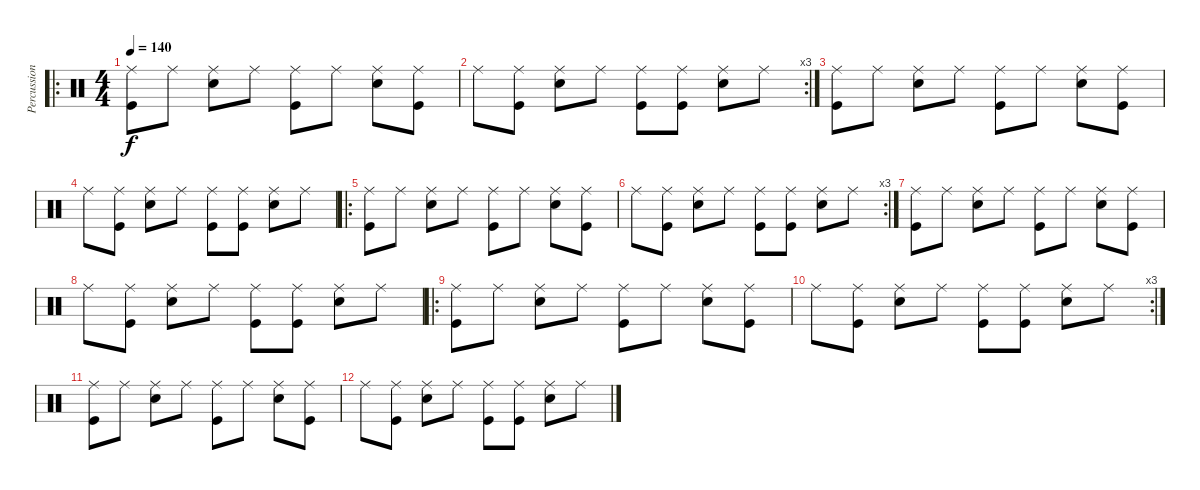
\track ("Percussions" "Percussion") {instrument percussion}
\staff {score}
\articulation defaults
\ro
\ts (4 4)
\tempo 140
\clef neutral
\ks c
("Ride (middle)" "Kick (hit)").8{dy f} "Ride (middle)".8 ("Ride (middle)" "Snare (hit) 2").8 "Ride (middle)".8 ("Ride (middle)" "Kick (hit)").8 "Ride (middle)".8 ("Ride (middle)" "Snare (hit) 2").8 ("Ride (middle)" "Kick (hit)").8 |
\rc 3 "Ride (middle)".8
("Ride (middle)" "Kick (hit)").8 ("Ride (middle)" "Snare (hit) 2").8 "Ride (middle)".8 ("Ride (middle)" "Kick (hit)").8 ("Ride (middle)" "Kick (hit)").8 ("Ride (middle)" "Snare (hit) 2").8 "Ride (middle)".8 |
("Ride (middle)" "Kick (hit)").8 "Ride (middle)".8 ("Ride (middle)" "Snare (hit) 2").8 "Ride (middle)".8 ("Ride (middle)" "Kick (hit)").8 "Ride (middle)".8 ("Ride (middle)" "Snare (hit) 2").8 ("Ride (middle)" "Kick (hit)").8 |
"Ride (middle)".8 ("Ride (middle)" "Kick (hit)").8 ("Ride (middle)" "Snare (hit) 2").8 "Ride (middle)".8 ("Ride (middle)" "Kick (hit)").8 ("Ride (middle)" "Kick (hit)").8 ("Ride (middle)" "Snare (hit) 2").8 "Ride (middle)".8 |
\ro
("Ride (middle)" "Kick (hit)").8 "Ride (middle)".8 ("Ride (middle)" "Snare (hit) 2").8 "Ride (middle)".8 ("Ride (middle)" "Kick (hit)").8 "Ride (middle)".8 ("Ride (middle)" "Snare (hit) 2").8 ("Ride (middle)" "Kick (hit)").8 |
\rc 3 "Ride (middle)".8
("Ride (middle)" "Kick (hit)").8 ("Ride (middle)" "Snare (hit) 2").8 "Ride (middle)".8 ("Ride (middle)" "Kick (hit)").8 ("Ride (middle)" "Kick (hit)").8 ("Ride (middle)" "Snare (hit) 2").8 "Ride (middle)".8 |
("Ride (middle)" "Kick (hit)").8 "Ride (middle)".8 ("Ride (middle)" "Snare (hit) 2").8 "Ride (middle)".8 ("Ride (middle)" "Kick (hit)").8 "Ride (middle)".8 ("Ride (middle)" "Snare (hit) 2").8 ("Ride (middle)" "Kick (hit)").8 |
"Ride (middle)".8 ("Ride (middle)" "Kick (hit)").8 ("Ride (middle)" "Snare (hit) 2").8 "Ride (middle)".8 ("Ride (middle)" "Kick (hit)").8 ("Ride (middle)" "Kick (hit)").8 ("Ride (middle)" "Snare (hit) 2").8 "Ride (middle)".8 |
\ro
("Ride (middle)" "Kick (hit)").8 "Ride (middle)".8 ("Ride (middle)" "Snare (hit) 2").8 "Ride (middle)".8 ("Ride (middle)" "Kick (hit)").8 "Ride (middle)".8 ("Ride (middle)" "Snare (hit) 2").8 ("Ride (middle)" "Kick (hit)").8 |
\rc 3 "Ride (middle)".8
("Ride (middle)" "Kick (hit)").8 ("Ride (middle)" "Snare (hit) 2").8 "Ride (middle)".8 ("Ride (middle)" "Kick (hit)").8 ("Ride (middle)" "Kick (hit)").8 ("Ride (middle)" "Snare (hit) 2").8 "Ride (middle)".8 |
("Ride (middle)" "Kick (hit)").8 "Ride (middle)".8 ("Ride (middle)" "Snare (hit) 2").8 "Ride (middle)".8 ("Ride (middle)" "Kick (hit)").8 "Ride (middle)".8 ("Ride (middle)" "Snare (hit) 2").8 ("Ride (middle)" "Kick (hit)").8 |
"Ride (middle)".8 ("Ride (middle)" "Kick (hit)").8 ("Ride (middle)" "Snare (hit) 2").8 "Ride (middle)".8 ("Ride (middle)" "Kick (hit)").8 ("Ride (middle)" "Kick (hit)").8 ("Ride (middle)" "Snare (hit) 2").8 "Ride (middle)".8
